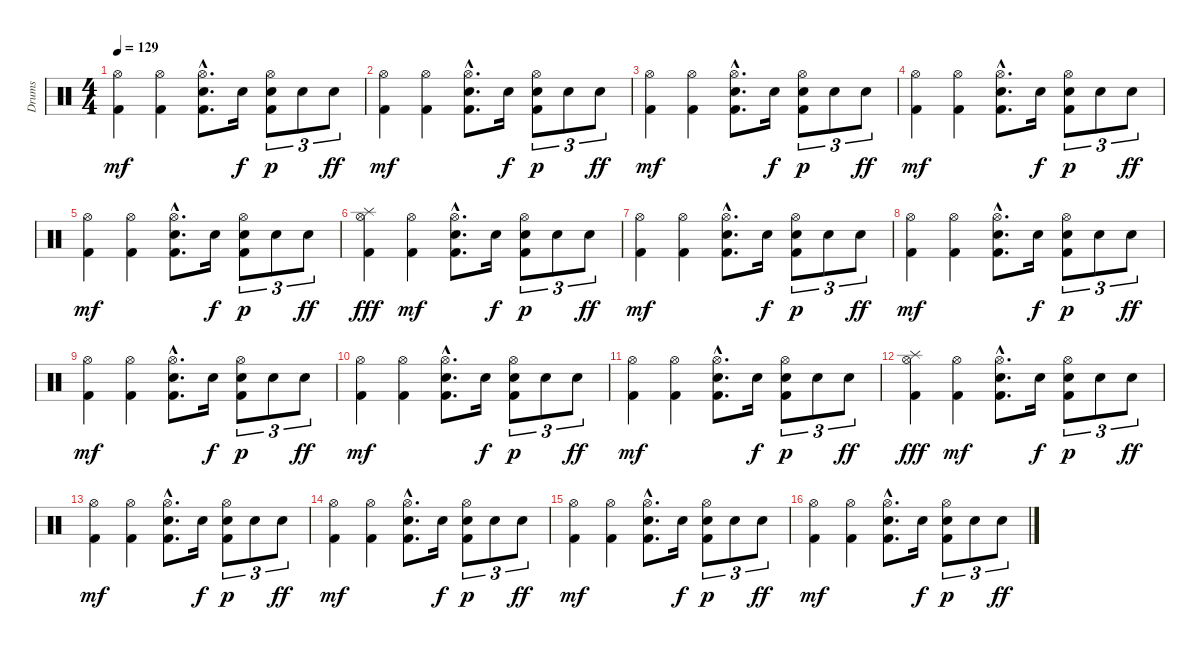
\track ("Drums" "Drums") {instrument percussion}
\staff {score}
\articulation defaults
\ts (4 4)
\tempo 129
\clef neutral
\ks c
("Hi-Hat (open)" "Kick (hit) 2").4{dy mf} ("Hi-Hat (open)" "Kick (hit) 2").4 ("Hi-Hat (open)"{hac} "Electric Snare (hit)"{hac} "Kick (hit) 2"{hac}).8{d} "Electric Snare (hit)".16{dy f} ("Hi-Hat (open)" "Electric Snare (hit)" "Kick (hit) 2").8{tu (3 2) dy p} "Electric Snare (hit)".8{tu (3 2)} "Electric Snare (hit)".8{tu (3 2) dy ff} |
("Hi-Hat (open)" "Kick (hit) 2").4{dy mf} ("Hi-Hat (open)" "Kick (hit) 2").4 ("Hi-Hat (open)"{hac} "Electric Snare (hit)"{hac} "Kick (hit) 2"{hac}).8{d} "Electric Snare (hit)".16{dy f} ("Hi-Hat (open)" "Electric Snare (hit)" "Kick (hit) 2").8{tu (3 2) dy p} "Electric Snare (hit)".8{tu (3 2)} "Electric Snare (hit)".8{tu (3 2) dy ff} |
("Hi-Hat (open)" "Kick (hit) 2").4{dy mf} ("Hi-Hat (open)" "Kick (hit) 2").4 ("Hi-Hat (open)"{hac} "Electric Snare (hit)"{hac} "Kick (hit) 2"{hac}).8{d} "Electric Snare (hit)".16{dy f} ("Hi-Hat (open)" "Electric Snare (hit)" "Kick (hit) 2").8{tu (3 2) dy p} "Electric Snare (hit)".8{tu (3 2)} "Electric Snare (hit)".8{tu (3 2) dy ff} |
("Hi-Hat (open)" "Kick (hit) 2").4{dy mf} ("Hi-Hat (open)" "Kick (hit) 2").4 ("Hi-Hat (open)"{hac} "Electric Snare (hit)"{hac} "Kick (hit) 2"{hac}).8{d} "Electric Snare (hit)".16{dy f} ("Hi-Hat (open)" "Electric Snare (hit)" "Kick (hit) 2").8{tu (3 2) dy p} "Electric Snare (hit)".8{tu (3 2)} "Electric Snare (hit)".8{tu (3 2) dy ff} |
("Hi-Hat (open)" "Kick (hit) 2").4{dy mf} ("Hi-Hat (open)" "Kick (hit) 2").4 ("Hi-Hat (open)"{hac} "Electric Snare (hit)"{hac} "Kick (hit) 2"{hac}).8{d} "Electric Snare (hit)".16{dy f} ("Hi-Hat (open)" "Electric Snare (hit)" "Kick (hit) 2").8{tu (3 2) dy p} "Electric Snare (hit)".8{tu (3 2)} "Electric Snare (hit)".8{tu (3 2) dy ff} |
("Hi-Hat (open)" "Splash (hit)" "Kick (hit) 2").4{dy fff} ("Hi-Hat (open)" "Kick (hit) 2").4{dy mf} ("Hi-Hat (open)"{hac} "Electric Snare (hit)"{hac} "Kick (hit) 2"{hac}).8{d} "Electric Snare (hit)".16{dy f} ("Hi-Hat (open)" "Electric Snare (hit)" "Kick (hit) 2").8{tu (3 2) dy p} "Electric Snare (hit)".8{tu (3 2)} "Electric Snare (hit)".8{tu (3 2) dy ff} |
("Hi-Hat (open)" "Kick (hit) 2").4{dy mf} ("Hi-Hat (open)" "Kick (hit) 2").4 ("Hi-Hat (open)"{hac} "Electric Snare (hit)"{hac} "Kick (hit) 2"{hac}).8{d} "Electric Snare (hit)".16{dy f} ("Hi-Hat (open)" "Electric Snare (hit)" "Kick (hit) 2").8{tu (3 2) dy p} "Electric Snare (hit)".8{tu (3 2)} "Electric Snare (hit)".8{tu (3 2) dy ff} |
("Hi-Hat (open)" "Kick (hit) 2").4{dy mf} ("Hi-Hat (open)" "Kick (hit) 2").4 ("Hi-Hat (open)"{hac} "Electric Snare (hit)"{hac} "Kick (hit) 2"{hac}).8{d} "Electric Snare (hit)".16{dy f} ("Hi-Hat (open)" "Electric Snare (hit)" "Kick (hit) 2").8{tu (3 2) dy p} "Electric Snare (hit)".8{tu (3 2)} "Electric Snare (hit)".8{tu (3 2) dy ff} |
("Hi-Hat (open)" "Kick (hit) 2").4{dy mf} ("Hi-Hat (open)" "Kick (hit) 2").4 ("Hi-Hat (open)"{hac} "Electric Snare (hit)"{hac} "Kick (hit) 2"{hac}).8{d} "Electric Snare (hit)".16{dy f} ("Hi-Hat (open)" "Electric Snare (hit)" "Kick (hit) 2").8{tu (3 2) dy p} "Electric Snare (hit)".8{tu (3 2)} "Electric Snare (hit)".8{tu (3 2) dy ff} |
("Hi-Hat (open)" "Kick (hit) 2").4{dy mf} ("Hi-Hat (open)" "Kick (hit) 2").4 ("Hi-Hat (open)"{hac} "Electric Snare (hit)"{hac} "Kick (hit) 2"{hac}).8{d} "Electric Snare (hit)".16{dy f} ("Hi-Hat (open)" "Electric Snare (hit)" "Kick (hit) 2").8{tu (3 2) dy p} "Electric Snare (hit)".8{tu (3 2)} "Electric Snare (hit)".8{tu (3 2) dy ff} |
("Hi-Hat (open)" "Kick (hit) 2").4{dy mf} ("Hi-Hat (open)" "Kick (hit) 2").4 ("Hi-Hat (open)"{hac} "Electric Snare (hit)"{hac} "Kick (hit) 2"{hac}).8{d} "Electric Snare (hit)".16{dy f} ("Hi-Hat (open)" "Electric Snare (hit)" "Kick (hit) 2").8{tu (3 2) dy p} "Electric Snare (hit)".8{tu (3 2)} "Electric Snare (hit)".8{tu (3 2) dy ff} |
("Hi-Hat (open)" "Splash (hit)" "Kick (hit) 2").4{dy fff} ("Hi-Hat (open)" "Kick (hit) 2").4{dy mf} ("Hi-Hat (open)"{hac} "Electric Snare (hit)"{hac} "Kick (hit) 2"{hac}).8{d} "Electric Snare (hit)".16{dy f} ("Hi-Hat (open)" "Electric Snare (hit)" "Kick (hit) 2").8{tu (3 2) dy p} "Electric Snare (hit)".8{tu (3 2)} "Electric Snare (hit)".8{tu (3 2) dy ff} |
("Hi-Hat (open)" "Kick (hit) 2").4{dy mf} ("Hi-Hat (open)" "Kick (hit) 2").4 ("Hi-Hat (open)"{hac} "Electric Snare (hit)"{hac} "Kick (hit) 2"{hac}).8{d} "Electric Snare (hit)".16{dy f} ("Hi-Hat (open)" "Electric Snare (hit)" "Kick (hit) 2").8{tu (3 2) dy p} "Electric Snare (hit)".8{tu (3 2)} "Electric Snare (hit)".8{tu (3 2) dy ff} |
("Hi-Hat (open)" "Kick (hit) 2").4{dy mf} ("Hi-Hat (open)" "Kick (hit) 2").4 ("Hi-Hat (open)"{hac} "Electric Snare (hit)"{hac} "Kick (hit) 2"{hac}).8{d} "Electric Snare (hit)".16{dy f} ("Hi-Hat (open)" "Electric Snare (hit)" "Kick (hit) 2").8{tu (3 2) dy p} "Electric Snare (hit)".8{tu (3 2)} "Electric Snare (hit)".8{tu (3 2) dy ff} |
("Hi-Hat (open)" "Kick (hit) 2").4{dy mf} ("Hi-Hat (open)" "Kick (hit) 2").4 ("Hi-Hat (open)"{hac} "Electric Snare (hit)"{hac} "Kick (hit) 2"{hac}).8{d} "Electric Snare (hit)".16{dy f} ("Hi-Hat (open)" "Electric Snare (hit)" "Kick (hit) 2").8{tu (3 2) dy p} "Electric Snare (hit)".8{tu (3 2)} "Electric Snare (hit)".8{tu (3 2) dy ff} |
("Hi-Hat (open)" "Kick (hit) 2").4{dy mf} ("Hi-Hat (open)" "Kick (hit) 2").4 ("Hi-Hat (open)"{hac} "Electric Snare (hit)"{hac} "Kick (hit) 2"{hac}).8{d} "Electric Snare (hit)".16{dy f} ("Hi-Hat (open)" "Electric Snare (hit)" "Kick (hit) 2").8{tu (3 2) dy p} "Electric Snare (hit)".8{tu (3 2)} "Electric Snare (hit)".8{tu (3 2) dy ff}
